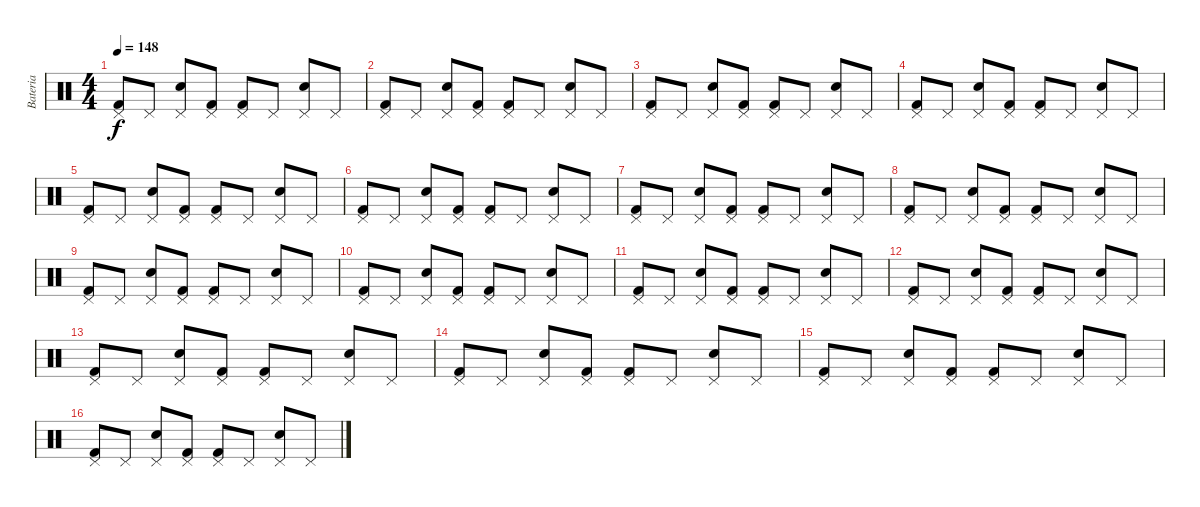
\track ("Bateria" "Bateria") {instrument percussion}
\staff {score}
\articulation defaults
\ts (4 4)
\tempo 148
\clef neutral
\ks c
("Pedal Hi-Hat (hit)" "Kick (hit) 2").8{dy f} "Pedal Hi-Hat (hit)".8 ("Pedal Hi-Hat (hit)" "Snare (hit) 2").8 ("Pedal Hi-Hat (hit)" "Kick (hit) 2").8 ("Pedal Hi-Hat (hit)" "Kick (hit) 2").8 "Pedal Hi-Hat (hit)".8 ("Pedal Hi-Hat (hit)" "Snare (hit) 2").8 "Pedal Hi-Hat (hit)".8 |
("Pedal Hi-Hat (hit)" "Kick (hit) 2").8 "Pedal Hi-Hat (hit)".8 ("Pedal Hi-Hat (hit)" "Snare (hit) 2").8 ("Pedal Hi-Hat (hit)" "Kick (hit) 2").8 ("Pedal Hi-Hat (hit)" "Kick (hit) 2").8 "Pedal Hi-Hat (hit)".8 ("Pedal Hi-Hat (hit)" "Snare (hit) 2").8 "Pedal Hi-Hat (hit)".8 |
("Pedal Hi-Hat (hit)" "Kick (hit) 2").8 "Pedal Hi-Hat (hit)".8 ("Pedal Hi-Hat (hit)" "Snare (hit) 2").8 ("Pedal Hi-Hat (hit)" "Kick (hit) 2").8 ("Pedal Hi-Hat (hit)" "Kick (hit) 2").8 "Pedal Hi-Hat (hit)".8 ("Pedal Hi-Hat (hit)" "Snare (hit) 2").8 "Pedal Hi-Hat (hit)".8 |
("Pedal Hi-Hat (hit)" "Kick (hit) 2").8 "Pedal Hi-Hat (hit)".8 ("Pedal Hi-Hat (hit)" "Snare (hit) 2").8 ("Pedal Hi-Hat (hit)" "Kick (hit) 2").8 ("Pedal Hi-Hat (hit)" "Kick (hit) 2").8 "Pedal Hi-Hat (hit)".8 ("Pedal Hi-Hat (hit)" "Snare (hit) 2").8 "Pedal Hi-Hat (hit)".8 |
("Pedal Hi-Hat (hit)" "Kick (hit) 2").8 "Pedal Hi-Hat (hit)".8 ("Pedal Hi-Hat (hit)" "Snare (hit) 2").8 ("Pedal Hi-Hat (hit)" "Kick (hit) 2").8 ("Pedal Hi-Hat (hit)" "Kick (hit) 2").8 "Pedal Hi-Hat (hit)".8 ("Pedal Hi-Hat (hit)" "Snare (hit) 2").8 "Pedal Hi-Hat (hit)".8 |
("Pedal Hi-Hat (hit)" "Kick (hit) 2").8 "Pedal Hi-Hat (hit)".8 ("Pedal Hi-Hat (hit)" "Snare (hit) 2").8 ("Pedal Hi-Hat (hit)" "Kick (hit) 2").8 ("Pedal Hi-Hat (hit)" "Kick (hit) 2").8 "Pedal Hi-Hat (hit)".8 ("Pedal Hi-Hat (hit)" "Snare (hit) 2").8 "Pedal Hi-Hat (hit)".8 |
("Pedal Hi-Hat (hit)" "Kick (hit) 2").8 "Pedal Hi-Hat (hit)".8 ("Pedal Hi-Hat (hit)" "Snare (hit) 2").8 ("Pedal Hi-Hat (hit)" "Kick (hit) 2").8 ("Pedal Hi-Hat (hit)" "Kick (hit) 2").8 "Pedal Hi-Hat (hit)".8 ("Pedal Hi-Hat (hit)" "Snare (hit) 2").8 "Pedal Hi-Hat (hit)".8 |
("Pedal Hi-Hat (hit)" "Kick (hit) 2").8 "Pedal Hi-Hat (hit)".8 ("Pedal Hi-Hat (hit)" "Snare (hit) 2").8 ("Pedal Hi-Hat (hit)" "Kick (hit) 2").8 ("Pedal Hi-Hat (hit)" "Kick (hit) 2").8 "Pedal Hi-Hat (hit)".8 ("Pedal Hi-Hat (hit)" "Snare (hit) 2").8 "Pedal Hi-Hat (hit)".8 |
("Pedal Hi-Hat (hit)" "Kick (hit) 2").8 "Pedal Hi-Hat (hit)".8 ("Pedal Hi-Hat (hit)" "Snare (hit) 2").8 ("Pedal Hi-Hat (hit)" "Kick (hit) 2").8 ("Pedal Hi-Hat (hit)" "Kick (hit) 2").8 "Pedal Hi-Hat (hit)".8 ("Pedal Hi-Hat (hit)" "Snare (hit) 2").8 "Pedal Hi-Hat (hit)".8 |
("Pedal Hi-Hat (hit)" "Kick (hit) 2").8 "Pedal Hi-Hat (hit)".8 ("Pedal Hi-Hat (hit)" "Snare (hit) 2").8 ("Pedal Hi-Hat (hit)" "Kick (hit) 2").8 ("Pedal Hi-Hat (hit)" "Kick (hit) 2").8 "Pedal Hi-Hat (hit)".8 ("Pedal Hi-Hat (hit)" "Snare (hit) 2").8 "Pedal Hi-Hat (hit)".8 |
("Pedal Hi-Hat (hit)" "Kick (hit) 2").8 "Pedal Hi-Hat (hit)".8 ("Pedal Hi-Hat (hit)" "Snare (hit) 2").8 ("Pedal Hi-Hat (hit)" "Kick (hit) 2").8 ("Pedal Hi-Hat (hit)" "Kick (hit) 2").8 "Pedal Hi-Hat (hit)".8 ("Pedal Hi-Hat (hit)" "Snare (hit) 2").8 "Pedal Hi-Hat (hit)".8 |
("Pedal Hi-Hat (hit)" "Kick (hit) 2").8 "Pedal Hi-Hat (hit)".8 ("Pedal Hi-Hat (hit)" "Snare (hit) 2").8 ("Pedal Hi-Hat (hit)" "Kick (hit) 2").8 ("Pedal Hi-Hat (hit)" "Kick (hit) 2").8 "Pedal Hi-Hat (hit)".8 ("Pedal Hi-Hat (hit)" "Snare (hit) 2").8 "Pedal Hi-Hat (hit)".8 |
("Pedal Hi-Hat (hit)" "Kick (hit) 2").8 "Pedal Hi-Hat (hit)".8 ("Pedal Hi-Hat (hit)" "Snare (hit) 2").8 ("Pedal Hi-Hat (hit)" "Kick (hit) 2").8 ("Pedal Hi-Hat (hit)" "Kick (hit) 2").8 "Pedal Hi-Hat (hit)".8 ("Pedal Hi-Hat (hit)" "Snare (hit) 2").8 "Pedal Hi-Hat (hit)".8 |
("Pedal Hi-Hat (hit)" "Kick (hit) 2").8 "Pedal Hi-Hat (hit)".8 ("Pedal Hi-Hat (hit)" "Snare (hit) 2").8 ("Pedal Hi-Hat (hit)" "Kick (hit) 2").8 ("Pedal Hi-Hat (hit)" "Kick (hit) 2").8 "Pedal Hi-Hat (hit)".8 ("Pedal Hi-Hat (hit)" "Snare (hit) 2").8 "Pedal Hi-Hat (hit)".8 |
("Pedal Hi-Hat (hit)" "Kick (hit) 2").8 "Pedal Hi-Hat (hit)".8 ("Pedal Hi-Hat (hit)" "Snare (hit) 2").8 ("Pedal Hi-Hat (hit)" "Kick (hit) 2").8 ("Pedal Hi-Hat (hit)" "Kick (hit) 2").8 "Pedal Hi-Hat (hit)".8 ("Pedal Hi-Hat (hit)" "Snare (hit) 2").8 "Pedal Hi-Hat (hit)".8 |
("Pedal Hi-Hat (hit)" "Kick (hit) 2").8 "Pedal Hi-Hat (hit)".8 ("Pedal Hi-Hat (hit)" "Snare (hit) 2").8 ("Pedal Hi-Hat (hit)" "Kick (hit) 2").8 ("Pedal Hi-Hat (hit)" "Kick (hit) 2").8 "Pedal Hi-Hat (hit)".8 ("Pedal Hi-Hat (hit)" "Snare (hit) 2").8 "Pedal Hi-Hat (hit)".8
